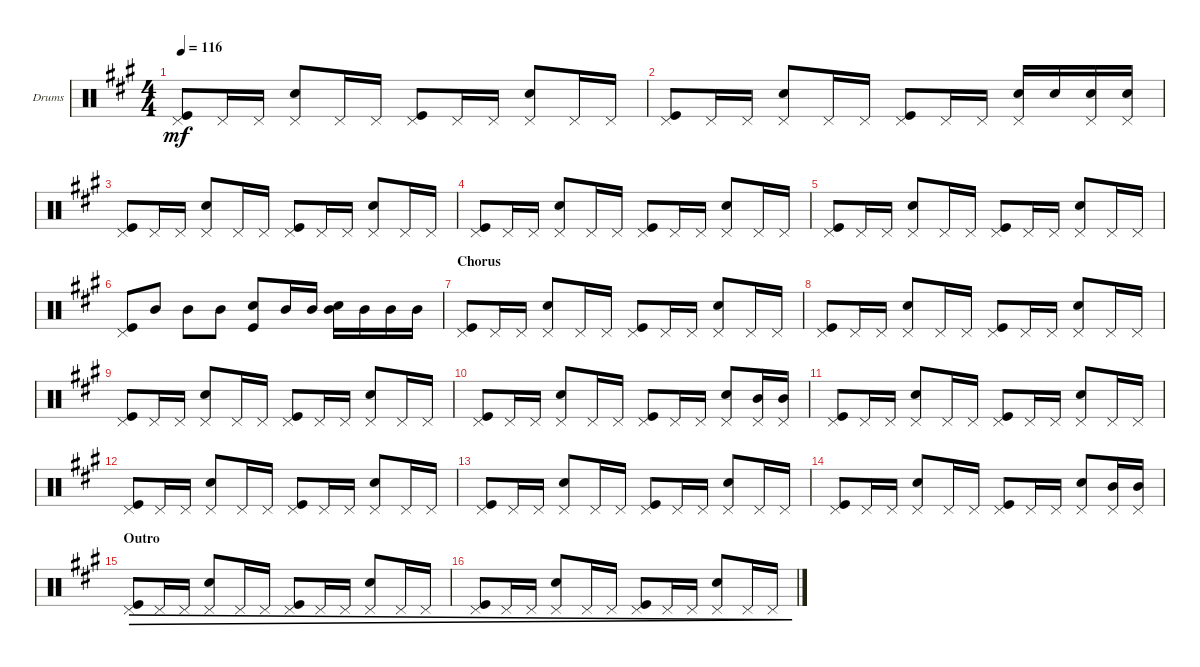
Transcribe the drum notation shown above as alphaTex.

\defaultSystemsLayout 4
\bracketExtendMode groupsimilarinstruments
\firstSystemTrackNameOrientation horizontal
\otherSystemsTrackNameOrientation horizontal
\track ("Drumkit" "Drums") {instrument percussion}
\staff {score}
\articulation defaults
\ts (4 4)
\tempo 116
\clef neutral
\ks a
("Pedal Hi-Hat (hit)" "Kick (hit)").8{dy mf} "Pedal Hi-Hat (hit)".16 "Pedal Hi-Hat (hit)".16 ("Pedal Hi-Hat (hit)" "Snare (hit) 2").8 "Pedal Hi-Hat (hit)".16 "Pedal Hi-Hat (hit)".16 ("Pedal Hi-Hat (hit)" "Kick (hit)").8 "Pedal Hi-Hat (hit)".16 "Pedal Hi-Hat (hit)".16 ("Pedal Hi-Hat (hit)" "Snare (hit) 2").8 "Pedal Hi-Hat (hit)".16 "Pedal Hi-Hat (hit)".16 |
("Pedal Hi-Hat (hit)" "Kick (hit)").8 "Pedal Hi-Hat (hit)".16 "Pedal Hi-Hat (hit)".16 ("Pedal Hi-Hat (hit)" "Snare (hit) 2").8 "Pedal Hi-Hat (hit)".16 "Pedal Hi-Hat (hit)".16 ("Pedal Hi-Hat (hit)" "Kick (hit)").8 "Pedal Hi-Hat (hit)".16 "Pedal Hi-Hat (hit)".16 ("Pedal Hi-Hat (hit)" "Snare (hit) 2").16 "Snare (hit) 2".16 ("Snare (hit) 2" "Pedal Hi-Hat (hit)").16 ("Snare (hit) 2" "Pedal Hi-Hat (hit)").16 |
("Pedal Hi-Hat (hit)" "Kick (hit)").8 "Pedal Hi-Hat (hit)".16 "Pedal Hi-Hat (hit)".16 ("Pedal Hi-Hat (hit)" "Snare (hit) 2").8 "Pedal Hi-Hat (hit)".16 "Pedal Hi-Hat (hit)".16 ("Pedal Hi-Hat (hit)" "Kick (hit)").8 "Pedal Hi-Hat (hit)".16 "Pedal Hi-Hat (hit)".16 ("Pedal Hi-Hat (hit)" "Snare (hit) 2").8 "Pedal Hi-Hat (hit)".16 "Pedal Hi-Hat (hit)".16 |
("Pedal Hi-Hat (hit)" "Kick (hit)").8 "Pedal Hi-Hat (hit)".16 "Pedal Hi-Hat (hit)".16 ("Pedal Hi-Hat (hit)" "Snare (hit) 2").8 "Pedal Hi-Hat (hit)".16 "Pedal Hi-Hat (hit)".16 ("Pedal Hi-Hat (hit)" "Kick (hit)").8 "Pedal Hi-Hat (hit)".16 "Pedal Hi-Hat (hit)".16 ("Pedal Hi-Hat (hit)" "Snare (hit) 2").8 "Pedal Hi-Hat (hit)".16 "Pedal Hi-Hat (hit)".16 |
("Pedal Hi-Hat (hit)" "Kick (hit)").8 "Pedal Hi-Hat (hit)".16 "Pedal Hi-Hat (hit)".16 ("Pedal Hi-Hat (hit)" "Snare (hit) 2").8 "Pedal Hi-Hat (hit)".16 "Pedal Hi-Hat (hit)".16 ("Pedal Hi-Hat (hit)" "Kick (hit)").8 "Pedal Hi-Hat (hit)".16 "Pedal Hi-Hat (hit)".16 ("Pedal Hi-Hat (hit)" "Snare (hit) 2").8 "Pedal Hi-Hat (hit)".16 "Pedal Hi-Hat (hit)".16 |
("Pedal Hi-Hat (hit)" "Kick (hit)").8 "Mid Tom (hit)".8 "Mid Tom (hit)".8 "Mid Tom (hit)".8 ("Snare (hit) 2" "Kick (hit)").8 "Mid Tom (hit)".16 "Mid Tom (hit)".16 ("Snare (hit) 2" "Mid Tom (hit)").16 "Mid Tom (hit)".16 "Mid Tom (hit)".16 "Mid Tom (hit)".16 |
\section ("" "Chorus")
("Pedal Hi-Hat (hit)" "Kick (hit)").8 "Pedal Hi-Hat (hit)".16 "Pedal Hi-Hat (hit)".16 ("Pedal Hi-Hat (hit)" "Snare (hit) 2").8 "Pedal Hi-Hat (hit)".16 "Pedal Hi-Hat (hit)".16 ("Pedal Hi-Hat (hit)" "Kick (hit)").8 "Pedal Hi-Hat (hit)".16 "Pedal Hi-Hat (hit)".16 ("Pedal Hi-Hat (hit)" "Snare (hit) 2").8 "Pedal Hi-Hat (hit)".16 "Pedal Hi-Hat (hit)".16 |
("Pedal Hi-Hat (hit)" "Kick (hit)").8 "Pedal Hi-Hat (hit)".16 "Pedal Hi-Hat (hit)".16 ("Pedal Hi-Hat (hit)" "Snare (hit) 2").8 "Pedal Hi-Hat (hit)".16 "Pedal Hi-Hat (hit)".16 ("Pedal Hi-Hat (hit)" "Kick (hit)").8 "Pedal Hi-Hat (hit)".16 "Pedal Hi-Hat (hit)".16 ("Pedal Hi-Hat (hit)" "Snare (hit) 2").8 "Pedal Hi-Hat (hit)".16 "Pedal Hi-Hat (hit)".16 |
("Pedal Hi-Hat (hit)" "Kick (hit)").8 "Pedal Hi-Hat (hit)".16 "Pedal Hi-Hat (hit)".16 ("Pedal Hi-Hat (hit)" "Snare (hit) 2").8 "Pedal Hi-Hat (hit)".16 "Pedal Hi-Hat (hit)".16 ("Pedal Hi-Hat (hit)" "Kick (hit)").8 "Pedal Hi-Hat (hit)".16 "Pedal Hi-Hat (hit)".16 ("Pedal Hi-Hat (hit)" "Snare (hit) 2").8 "Pedal Hi-Hat (hit)".16 "Pedal Hi-Hat (hit)".16 |
("Pedal Hi-Hat (hit)" "Kick (hit)").8 "Pedal Hi-Hat (hit)".16 "Pedal Hi-Hat (hit)".16 ("Pedal Hi-Hat (hit)" "Snare (hit) 2").8 "Pedal Hi-Hat (hit)".16 "Pedal Hi-Hat (hit)".16 ("Pedal Hi-Hat (hit)" "Kick (hit)").8 "Pedal Hi-Hat (hit)".16 "Pedal Hi-Hat (hit)".16 ("Pedal Hi-Hat (hit)" "Snare (hit) 2").8 ("Pedal Hi-Hat (hit)" "Mid Tom (hit)").16 ("Pedal Hi-Hat (hit)" "Mid Tom (hit)").16 |
("Pedal Hi-Hat (hit)" "Kick (hit)").8 "Pedal Hi-Hat (hit)".16 "Pedal Hi-Hat (hit)".16 ("Pedal Hi-Hat (hit)" "Snare (hit) 2").8 "Pedal Hi-Hat (hit)".16 "Pedal Hi-Hat (hit)".16 ("Pedal Hi-Hat (hit)" "Kick (hit)").8 "Pedal Hi-Hat (hit)".16 "Pedal Hi-Hat (hit)".16 ("Pedal Hi-Hat (hit)" "Snare (hit) 2").8 "Pedal Hi-Hat (hit)".16 "Pedal Hi-Hat (hit)".16 |
("Pedal Hi-Hat (hit)" "Kick (hit)").8 "Pedal Hi-Hat (hit)".16 "Pedal Hi-Hat (hit)".16 ("Pedal Hi-Hat (hit)" "Snare (hit) 2").8 "Pedal Hi-Hat (hit)".16 "Pedal Hi-Hat (hit)".16 ("Pedal Hi-Hat (hit)" "Kick (hit)").8 "Pedal Hi-Hat (hit)".16 "Pedal Hi-Hat (hit)".16 ("Pedal Hi-Hat (hit)" "Snare (hit) 2").8 "Pedal Hi-Hat (hit)".16 "Pedal Hi-Hat (hit)".16 |
("Pedal Hi-Hat (hit)" "Kick (hit)").8 "Pedal Hi-Hat (hit)".16 "Pedal Hi-Hat (hit)".16 ("Pedal Hi-Hat (hit)" "Snare (hit) 2").8 "Pedal Hi-Hat (hit)".16 "Pedal Hi-Hat (hit)".16 ("Pedal Hi-Hat (hit)" "Kick (hit)").8 "Pedal Hi-Hat (hit)".16 "Pedal Hi-Hat (hit)".16 ("Pedal Hi-Hat (hit)" "Snare (hit) 2").8 "Pedal Hi-Hat (hit)".16 "Pedal Hi-Hat (hit)".16 |
("Pedal Hi-Hat (hit)" "Kick (hit)").8 "Pedal Hi-Hat (hit)".16 "Pedal Hi-Hat (hit)".16 ("Pedal Hi-Hat (hit)" "Snare (hit) 2").8 "Pedal Hi-Hat (hit)".16 "Pedal Hi-Hat (hit)".16 ("Pedal Hi-Hat (hit)" "Kick (hit)").8 "Pedal Hi-Hat (hit)".16 "Pedal Hi-Hat (hit)".16 ("Pedal Hi-Hat (hit)" "Snare (hit) 2").8 ("Pedal Hi-Hat (hit)" "Mid Tom (hit)").16 ("Pedal Hi-Hat (hit)" "Mid Tom (hit)").16 |
\section ("" "Outro")
("Pedal Hi-Hat (hit)" "Kick (hit)").8{dec} "Pedal Hi-Hat (hit)".16{dec} "Pedal Hi-Hat (hit)".16{dec} ("Pedal Hi-Hat (hit)" "Snare (hit) 2").8{dec} "Pedal Hi-Hat (hit)".16{dec} "Pedal Hi-Hat (hit)".16{dec} ("Pedal Hi-Hat (hit)" "Kick (hit)").8{dec} "Pedal Hi-Hat (hit)".16{dec} "Pedal Hi-Hat (hit)".16{dec} ("Pedal Hi-Hat (hit)" "Snare (hit) 2").8{dec} "Pedal Hi-Hat (hit)".16{dec} "Pedal Hi-Hat (hit)".16{dec} |
("Pedal Hi-Hat (hit)" "Kick (hit)").8{dec} "Pedal Hi-Hat (hit)".16{dec} "Pedal Hi-Hat (hit)".16{dec} ("Pedal Hi-Hat (hit)" "Snare (hit) 2").8{dec} "Pedal Hi-Hat (hit)".16{dec} "Pedal Hi-Hat (hit)".16{dec} ("Pedal Hi-Hat (hit)" "Kick (hit)").8{dec} "Pedal Hi-Hat (hit)".16{dec} "Pedal Hi-Hat (hit)".16{dec} ("Pedal Hi-Hat (hit)" "Snare (hit) 2").8{dec} "Pedal Hi-Hat (hit)".16{dec} "Pedal Hi-Hat (hit)".16{dec}
